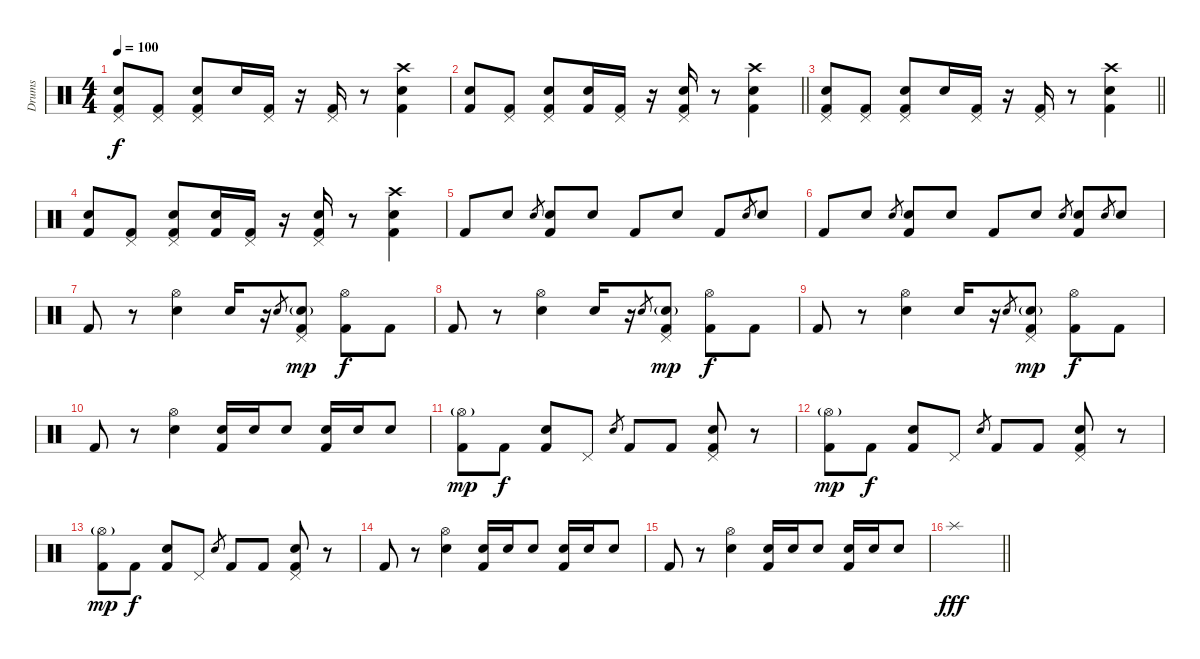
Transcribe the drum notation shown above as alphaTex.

\track ("Drums" "Drums") {instrument percussion}
\staff {score}
\articulation defaults
\ts (4 4)
\tempo 100
\clef neutral
\ks c
("Pedal Hi-Hat (hit)" "Snare (hit) 2" "Kick (hit) 2").8{dy f} ("Pedal Hi-Hat (hit)" "Kick (hit) 2").8 ("Pedal Hi-Hat (hit)" "Snare (hit) 2" "Kick (hit) 2").8 "Snare (hit) 2".16 ("Pedal Hi-Hat (hit)" "Kick (hit) 2").16 r.16 ("Pedal Hi-Hat (hit)" "Kick (hit) 2").16 r.8 ("Crash high (hit)" "Snare (hit) 2" "Kick (hit) 2").4 |
\barLineRight lightlight
("Snare (hit) 2" "Kick (hit) 2").8 ("Pedal Hi-Hat (hit)" "Kick (hit) 2").8 ("Pedal Hi-Hat (hit)" "Snare (hit) 2" "Kick (hit) 2").8 ("Snare (hit) 2" "Kick (hit) 2").16 ("Pedal Hi-Hat (hit)" "Kick (hit) 2").16 r.16 ("Pedal Hi-Hat (hit)" "Snare (hit) 2" "Kick (hit) 2").16 r.8 ("Crash high (hit)" "Snare (hit) 2" "Kick (hit) 2").4 |
\barLineRight lightlight
("Pedal Hi-Hat (hit)" "Snare (hit) 2" "Kick (hit) 2").8 ("Pedal Hi-Hat (hit)" "Kick (hit) 2").8 ("Pedal Hi-Hat (hit)" "Snare (hit) 2" "Kick (hit) 2").8 "Snare (hit) 2".16 ("Pedal Hi-Hat (hit)" "Kick (hit) 2").16 r.16 ("Pedal Hi-Hat (hit)" "Kick (hit) 2").16 r.8 ("Crash high (hit)" "Snare (hit) 2" "Kick (hit) 2").4 |
("Snare (hit) 2" "Kick (hit) 2").8 ("Pedal Hi-Hat (hit)" "Kick (hit) 2").8 ("Pedal Hi-Hat (hit)" "Snare (hit) 2" "Kick (hit) 2").8 ("Snare (hit) 2" "Kick (hit) 2").16 ("Pedal Hi-Hat (hit)" "Kick (hit) 2").16 r.16 ("Pedal Hi-Hat (hit)" "Snare (hit) 2" "Kick (hit) 2").16 r.8 ("Crash high (hit)" "Snare (hit) 2" "Kick (hit) 2").4 |
"Kick (hit) 2".8 "Snare (hit) 2".8 "Snare (hit) 2".8{gr} ("Snare (hit) 2" "Kick (hit) 2").8 "Snare (hit) 2".8 "Kick (hit) 2".8 "Snare (hit) 2".8 "Kick (hit) 2".8 "Snare (hit) 2".8{gr} "Snare (hit) 2".8 |
"Kick (hit) 2".8 "Snare (hit) 2".8 "Snare (hit) 2".8{gr} ("Snare (hit) 2" "Kick (hit) 2").8 "Snare (hit) 2".8 "Kick (hit) 2".8 "Snare (hit) 2".8 "Snare (hit) 2".8{gr} ("Snare (hit) 2" "Kick (hit) 2").8 "Snare (hit) 2".8{gr} "Snare (hit) 2".8 |
"Kick (hit) 2".8 r.8 ("Hi-Hat (open)" "Snare (hit) 2").4 "Snare (hit) 2".16 r.16 "Snare (hit) 2".8{gr} ("Pedal Hi-Hat (hit)" "Snare (hit) 2"{g} "Kick (hit) 2").8{dy mp} ("Hi-Hat (open)" "Kick (hit) 2").8{dy f} "Kick (hit) 2".8 |
"Kick (hit) 2".8 r.8 ("Hi-Hat (open)" "Snare (hit) 2").4 "Snare (hit) 2".16 r.16 "Snare (hit) 2".8{gr} ("Pedal Hi-Hat (hit)" "Snare (hit) 2"{g} "Kick (hit) 2").8{dy mp} ("Hi-Hat (open)" "Kick (hit) 2").8{dy f} "Kick (hit) 2".8 |
"Kick (hit) 2".8 r.8 ("Hi-Hat (open)" "Snare (hit) 2").4 "Snare (hit) 2".16 r.16 "Snare (hit) 2".8{gr} ("Pedal Hi-Hat (hit)" "Snare (hit) 2"{g} "Kick (hit) 2").8{dy mp} ("Hi-Hat (open)" "Kick (hit) 2").8{dy f} "Kick (hit) 2".8 |
"Kick (hit) 2".8 r.8 ("Hi-Hat (open)" "Snare (hit) 2").4 ("Snare (hit) 2" "Kick (hit) 2").16 "Snare (hit) 2".16 "Snare (hit) 2".8 ("Snare (hit) 2" "Kick (hit) 2").16 "Snare (hit) 2".16 "Snare (hit) 2".8 |
("Hi-Hat (open)"{g} "Kick (hit) 2").8{dy mp} "Kick (hit) 2".8{dy f} ("Snare (hit) 2" "Kick (hit) 2").8 "Pedal Hi-Hat (hit)".8 "Snare (hit) 2".8{gr} "Kick (hit) 2".8 "Kick (hit) 2".8 ("Pedal Hi-Hat (hit)" "Snare (hit) 2" "Kick (hit) 2").8 r.8 |
("Hi-Hat (open)"{g} "Kick (hit) 2").8{dy mp} "Kick (hit) 2".8{dy f} ("Snare (hit) 2" "Kick (hit) 2").8 "Pedal Hi-Hat (hit)".8 "Snare (hit) 2".8{gr} "Kick (hit) 2".8 "Kick (hit) 2".8 ("Pedal Hi-Hat (hit)" "Snare (hit) 2" "Kick (hit) 2").8 r.8 |
("Hi-Hat (open)"{g} "Kick (hit) 2").8{dy mp} "Kick (hit) 2".8{dy f} ("Snare (hit) 2" "Kick (hit) 2").8 "Pedal Hi-Hat (hit)".8 "Snare (hit) 2".8{gr} "Kick (hit) 2".8 "Kick (hit) 2".8 ("Pedal Hi-Hat (hit)" "Snare (hit) 2" "Kick (hit) 2").8 r.8 |
"Kick (hit) 2".8 r.8 ("Hi-Hat (open)" "Snare (hit) 2").4 ("Snare (hit) 2" "Kick (hit) 2").16 "Snare (hit) 2".16 "Snare (hit) 2".8 ("Snare (hit) 2" "Kick (hit) 2").16 "Snare (hit) 2".16 "Snare (hit) 2".8 |
"Kick (hit) 2".8 r.8 ("Hi-Hat (open)" "Snare (hit) 2").4 ("Snare (hit) 2" "Kick (hit) 2").16 "Snare (hit) 2".16 "Snare (hit) 2".8 ("Snare (hit) 2" "Kick (hit) 2").16 "Snare (hit) 2".16 "Snare (hit) 2".8 |
\barLineRight lightlight "Splash (hit)".1{dy fff}
